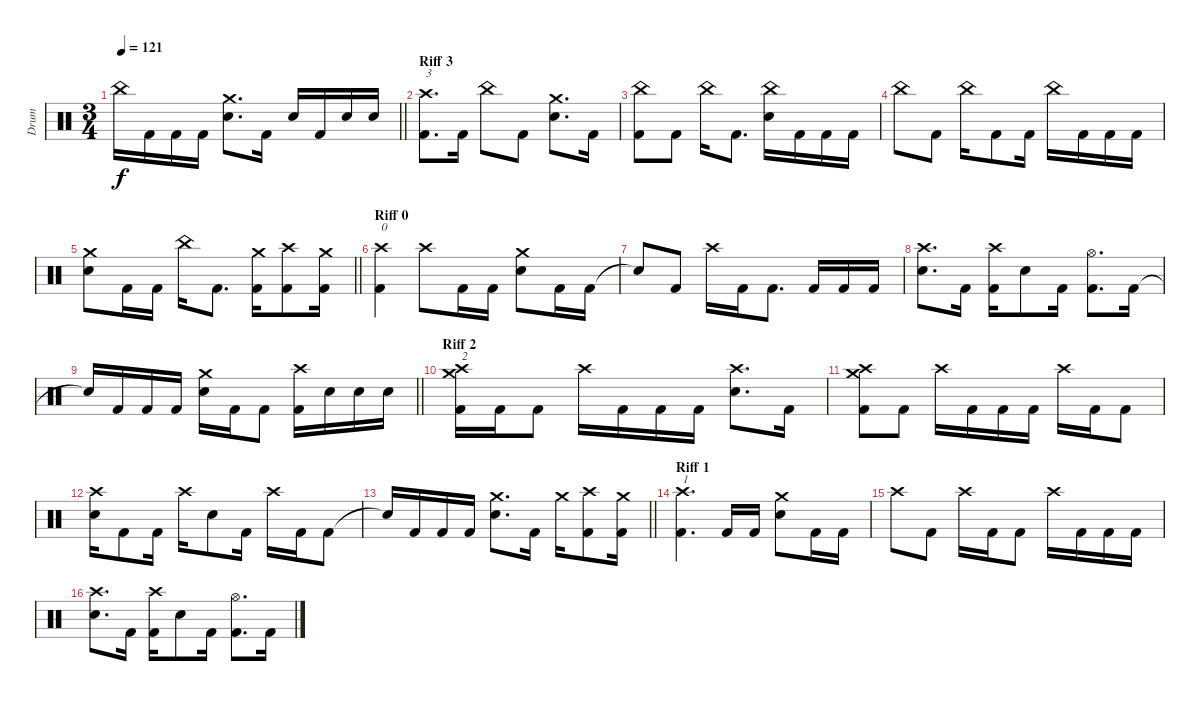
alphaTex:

\track ("Drum" "Drum") {instrument percussion}
\staff
\articulation defaults
\ts (3 4)
\tempo 121
\clef neutral
\barLineRight lightlight
\ks c "China (hit)".16{dy f} "Kick (hit) 2".16 "Kick (hit) 2".16 "Kick (hit) 2".16
("Electric Snare (hit)" "Crash medium (hit)").8{d} "Kick (hit) 2".16 "Electric Snare (hit)".16 "Kick (hit) 2".16 "Electric Snare (hit)".16 "Electric Snare (hit)".16 |
\section ("" "Riff 3")
("Kick (hit) 2" "Crash high (hit)").8{d txt "3"} "Kick (hit) 2".16 "China (hit)".8 "Kick (hit) 2".8 ("Electric Snare (hit)" "Crash medium (hit)").8{d} "Kick (hit) 2".16 |
("Kick (hit) 2" "China (hit)").8 "Kick (hit) 2".8 "China (hit)".16 "Kick (hit) 2".8{d} ("Electric Snare (hit)" "China (hit)").16 "Kick (hit) 2".16 "Kick (hit) 2".16 "Kick (hit) 2".16 |
"China (hit)".8 "Kick (hit) 2".8 "China (hit)".16 "Kick (hit) 2".8 "Kick (hit) 2".16 "China (hit)".16 "Kick (hit) 2".16 "Kick (hit) 2".16 "Kick (hit) 2".16 |
\barLineRight lightlight
("Electric Snare (hit)" "Crash medium (hit)").8 "Kick (hit) 2".16 "Kick (hit) 2".16 "China (hit)".16 "Kick (hit) 2".8{d} ("Kick (hit) 2" "Crash medium (hit)").16 ("Kick (hit) 2" "Crash high (hit)").8 ("Kick (hit) 2" "Crash medium (hit)").16 |
\section ("" "Riff 0")
("Kick (hit) 2" "Crash high (hit)").4{txt "0"} "Crash high (hit)".8 "Kick (hit) 2".16 "Kick (hit) 2".16 ("Electric Snare (hit)" "Crash medium (hit)").8 "Kick (hit) 2".16 "Kick (hit) 2".16 |
"Snare (hit)"{t}.8 "Kick (hit) 2".8 "Crash high (hit)".16 "Kick (hit) 2".16 "Kick (hit) 2".8{d} "Kick (hit) 2".16 "Kick (hit) 2".16 "Kick (hit) 2".16 |
("Electric Snare (hit)" "Crash high (hit)").8{d} "Kick (hit) 2".16 ("Kick (hit) 2" "Crash high (hit)").16 "Electric Snare (hit)".8 "Kick (hit) 2".16 ("Kick (hit) 2" "Hi-Hat (open)").8{d} "Kick (hit) 2".16 |
\barLineRight lightlight "Snare (hit)"{t}.16 "Kick (hit) 2".16 "Kick (hit) 2".16 "Kick (hit) 2".16
("Electric Snare (hit)" "Crash medium (hit)").16 "Kick (hit) 2".16 "Kick (hit) 2".8 ("Kick (hit) 2" "Crash high (hit)").16 "Electric Snare (hit)".16 "Electric Snare (hit)".16 "Electric Snare (hit)".16 |
\section ("" "Riff 2")
("Kick (hit) 2" "Crash high (hit)" "Crash medium (hit)").16{txt "2"} "Kick (hit) 2".16 "Kick (hit) 2".8 "Crash high (hit)".16 "Kick (hit) 2".16 "Kick (hit) 2".16 "Kick (hit) 2".16 ("Electric Snare (hit)" "Crash high (hit)").8{d} "Kick (hit) 2".16 |
("Kick (hit) 2" "Crash high (hit)" "Crash medium (hit)").8 "Kick (hit) 2".8 "Crash high (hit)".16 "Kick (hit) 2".16 "Kick (hit) 2".16 "Kick (hit) 2".16 "Crash high (hit)".16 "Kick (hit) 2".16 "Kick (hit) 2".8 |
("Electric Snare (hit)" "Crash high (hit)").16 "Kick (hit) 2".8 "Kick (hit) 2".16 "Crash high (hit)".16 "Electric Snare (hit)".8 "Kick (hit) 2".16 "Crash high (hit)".16 "Kick (hit) 2".16 "Kick (hit) 2".8 |
\barLineRight lightlight "Snare (hit)"{t}.16 "Kick (hit) 2".16 "Kick (hit) 2".16 "Kick (hit) 2".16
("Electric Snare (hit)" "Crash medium (hit)").8{d} "Kick (hit) 2".16 "Crash medium (hit)".16 ("Kick (hit) 2" "Crash high (hit)").8 ("Kick (hit) 2" "Crash medium (hit)").16 |
\section ("" "Riff 1")
("Kick (hit) 2" "Crash high (hit)").4{d txt "1"} "Kick (hit) 2".16 "Kick (hit) 2".16 ("Electric Snare (hit)" "Crash medium (hit)").8 "Kick (hit) 2".16 "Kick (hit) 2".16 |
"Crash high (hit)".8 "Kick (hit) 2".8 "Crash high (hit)".16 "Kick (hit) 2".16 "Kick (hit) 2".8 "Crash high (hit)".16 "Kick (hit) 2".16 "Kick (hit) 2".16 "Kick (hit) 2".16 |
("Electric Snare (hit)" "Crash high (hit)").8{d} "Kick (hit) 2".16 ("Kick (hit) 2" "Crash high (hit)").16 "Electric Snare (hit)".8 "Kick (hit) 2".16 ("Kick (hit) 2" "Hi-Hat (open)").8{d} "Kick (hit) 2".16
